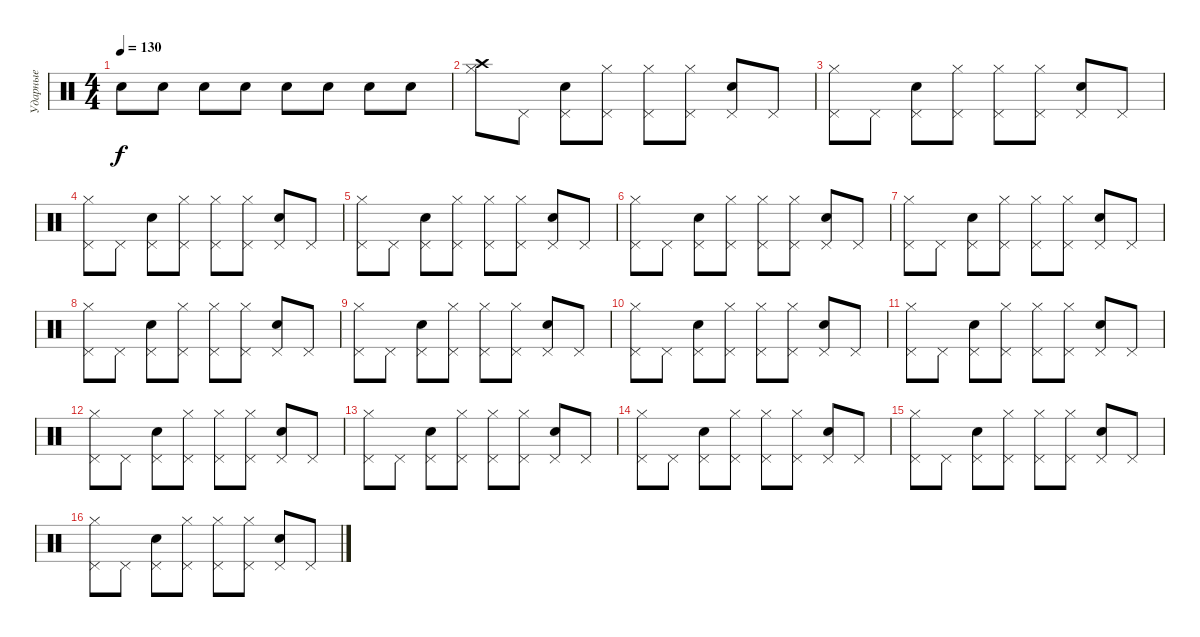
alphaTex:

\track ("Ударные" "Ударные") {instrument percussion}
\staff {score}
\articulation defaults
\ts (4 4)
\tempo 130
\clef neutral
\ks c "Snare (hit) 2".8{dy f} "Snare (hit) 2".8 "Snare (hit) 2".8 "Snare (hit) 2".8 "Snare (hit) 2".8 "Snare (hit) 2".8 "Snare (hit) 2".8 "Snare (hit) 2".8
|
("Hi-Hat (closed)" "Crash high (hit)").8 "Pedal Hi-Hat (hit)".8 ("Pedal Hi-Hat (hit)" "Snare (hit) 2").8 ("Pedal Hi-Hat (hit)" "Hi-Hat (closed)").8 ("Pedal Hi-Hat (hit)" "Hi-Hat (closed)").8 ("Pedal Hi-Hat (hit)" "Hi-Hat (closed)").8 ("Pedal Hi-Hat (hit)" "Snare (hit) 2").8 "Pedal Hi-Hat (hit)".8 |
("Pedal Hi-Hat (hit)" "Hi-Hat (closed)").8 "Pedal Hi-Hat (hit)".8 ("Pedal Hi-Hat (hit)" "Snare (hit) 2").8 ("Pedal Hi-Hat (hit)" "Hi-Hat (closed)").8 ("Pedal Hi-Hat (hit)" "Hi-Hat (closed)").8 ("Pedal Hi-Hat (hit)" "Hi-Hat (closed)").8 ("Pedal Hi-Hat (hit)" "Snare (hit) 2").8 "Pedal Hi-Hat (hit)".8 |
("Pedal Hi-Hat (hit)" "Hi-Hat (closed)").8 "Pedal Hi-Hat (hit)".8 ("Pedal Hi-Hat (hit)" "Snare (hit) 2").8 ("Pedal Hi-Hat (hit)" "Hi-Hat (closed)").8 ("Pedal Hi-Hat (hit)" "Hi-Hat (closed)").8 ("Pedal Hi-Hat (hit)" "Hi-Hat (closed)").8 ("Pedal Hi-Hat (hit)" "Snare (hit) 2").8 "Pedal Hi-Hat (hit)".8 |
("Pedal Hi-Hat (hit)" "Hi-Hat (closed)").8 "Pedal Hi-Hat (hit)".8 ("Pedal Hi-Hat (hit)" "Snare (hit) 2").8 ("Pedal Hi-Hat (hit)" "Hi-Hat (closed)").8 ("Pedal Hi-Hat (hit)" "Hi-Hat (closed)").8 ("Pedal Hi-Hat (hit)" "Hi-Hat (closed)").8 ("Pedal Hi-Hat (hit)" "Snare (hit) 2").8 "Pedal Hi-Hat (hit)".8 |
("Pedal Hi-Hat (hit)" "Hi-Hat (closed)").8 "Pedal Hi-Hat (hit)".8 ("Pedal Hi-Hat (hit)" "Snare (hit) 2").8 ("Pedal Hi-Hat (hit)" "Hi-Hat (closed)").8 ("Pedal Hi-Hat (hit)" "Hi-Hat (closed)").8 ("Pedal Hi-Hat (hit)" "Hi-Hat (closed)").8 ("Pedal Hi-Hat (hit)" "Snare (hit) 2").8 "Pedal Hi-Hat (hit)".8 |
("Pedal Hi-Hat (hit)" "Hi-Hat (closed)").8 "Pedal Hi-Hat (hit)".8 ("Pedal Hi-Hat (hit)" "Snare (hit) 2").8 ("Pedal Hi-Hat (hit)" "Hi-Hat (closed)").8 ("Pedal Hi-Hat (hit)" "Hi-Hat (closed)").8 ("Pedal Hi-Hat (hit)" "Hi-Hat (closed)").8 ("Pedal Hi-Hat (hit)" "Snare (hit) 2").8 "Pedal Hi-Hat (hit)".8 |
("Pedal Hi-Hat (hit)" "Hi-Hat (closed)").8 "Pedal Hi-Hat (hit)".8 ("Pedal Hi-Hat (hit)" "Snare (hit) 2").8 ("Pedal Hi-Hat (hit)" "Hi-Hat (closed)").8 ("Pedal Hi-Hat (hit)" "Hi-Hat (closed)").8 ("Pedal Hi-Hat (hit)" "Hi-Hat (closed)").8 ("Pedal Hi-Hat (hit)" "Snare (hit) 2").8 "Pedal Hi-Hat (hit)".8 |
("Pedal Hi-Hat (hit)" "Hi-Hat (closed)").8 "Pedal Hi-Hat (hit)".8 ("Pedal Hi-Hat (hit)" "Snare (hit) 2").8 ("Pedal Hi-Hat (hit)" "Hi-Hat (closed)").8 ("Pedal Hi-Hat (hit)" "Hi-Hat (closed)").8 ("Pedal Hi-Hat (hit)" "Hi-Hat (closed)").8 ("Pedal Hi-Hat (hit)" "Snare (hit) 2").8 "Pedal Hi-Hat (hit)".8 |
("Pedal Hi-Hat (hit)" "Hi-Hat (closed)").8 "Pedal Hi-Hat (hit)".8 ("Pedal Hi-Hat (hit)" "Snare (hit) 2").8 ("Pedal Hi-Hat (hit)" "Hi-Hat (closed)").8 ("Pedal Hi-Hat (hit)" "Hi-Hat (closed)").8 ("Pedal Hi-Hat (hit)" "Hi-Hat (closed)").8 ("Pedal Hi-Hat (hit)" "Snare (hit) 2").8 "Pedal Hi-Hat (hit)".8 |
("Pedal Hi-Hat (hit)" "Hi-Hat (closed)").8 "Pedal Hi-Hat (hit)".8 ("Pedal Hi-Hat (hit)" "Snare (hit) 2").8 ("Pedal Hi-Hat (hit)" "Hi-Hat (closed)").8 ("Pedal Hi-Hat (hit)" "Hi-Hat (closed)").8 ("Pedal Hi-Hat (hit)" "Hi-Hat (closed)").8 ("Pedal Hi-Hat (hit)" "Snare (hit) 2").8 "Pedal Hi-Hat (hit)".8 |
("Pedal Hi-Hat (hit)" "Hi-Hat (closed)").8 "Pedal Hi-Hat (hit)".8 ("Pedal Hi-Hat (hit)" "Snare (hit) 2").8 ("Pedal Hi-Hat (hit)" "Hi-Hat (closed)").8 ("Pedal Hi-Hat (hit)" "Hi-Hat (closed)").8 ("Pedal Hi-Hat (hit)" "Hi-Hat (closed)").8 ("Pedal Hi-Hat (hit)" "Snare (hit) 2").8 "Pedal Hi-Hat (hit)".8 |
("Pedal Hi-Hat (hit)" "Hi-Hat (closed)").8 "Pedal Hi-Hat (hit)".8 ("Pedal Hi-Hat (hit)" "Snare (hit) 2").8 ("Pedal Hi-Hat (hit)" "Hi-Hat (closed)").8 ("Pedal Hi-Hat (hit)" "Hi-Hat (closed)").8 ("Pedal Hi-Hat (hit)" "Hi-Hat (closed)").8 ("Pedal Hi-Hat (hit)" "Snare (hit) 2").8 "Pedal Hi-Hat (hit)".8 |
("Pedal Hi-Hat (hit)" "Hi-Hat (closed)").8 "Pedal Hi-Hat (hit)".8 ("Pedal Hi-Hat (hit)" "Snare (hit) 2").8 ("Pedal Hi-Hat (hit)" "Hi-Hat (closed)").8 ("Pedal Hi-Hat (hit)" "Hi-Hat (closed)").8 ("Pedal Hi-Hat (hit)" "Hi-Hat (closed)").8 ("Pedal Hi-Hat (hit)" "Snare (hit) 2").8 "Pedal Hi-Hat (hit)".8 |
("Pedal Hi-Hat (hit)" "Hi-Hat (closed)").8 "Pedal Hi-Hat (hit)".8 ("Pedal Hi-Hat (hit)" "Snare (hit) 2").8 ("Pedal Hi-Hat (hit)" "Hi-Hat (closed)").8 ("Pedal Hi-Hat (hit)" "Hi-Hat (closed)").8 ("Pedal Hi-Hat (hit)" "Hi-Hat (closed)").8 ("Pedal Hi-Hat (hit)" "Snare (hit) 2").8 "Pedal Hi-Hat (hit)".8 |
("Pedal Hi-Hat (hit)" "Hi-Hat (closed)").8 "Pedal Hi-Hat (hit)".8 ("Pedal Hi-Hat (hit)" "Snare (hit) 2").8 ("Pedal Hi-Hat (hit)" "Hi-Hat (closed)").8 ("Pedal Hi-Hat (hit)" "Hi-Hat (closed)").8 ("Pedal Hi-Hat (hit)" "Hi-Hat (closed)").8 ("Pedal Hi-Hat (hit)" "Snare (hit) 2").8 "Pedal Hi-Hat (hit)".8
